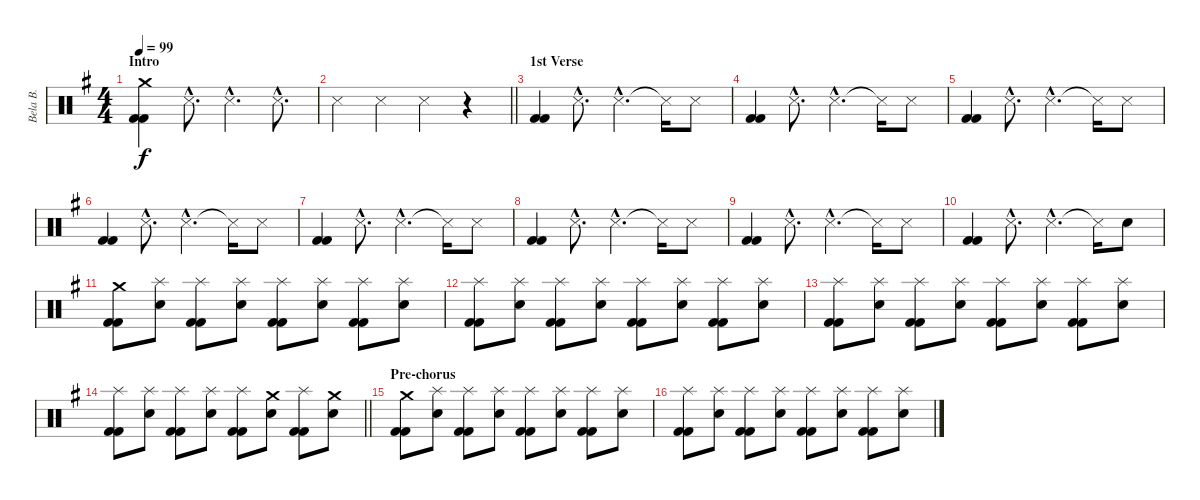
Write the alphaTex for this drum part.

\track ("Bela B." "Bela B.") {instrument percussion}
\staff {score}
\articulation defaults
\ts (4 4)
\section ("" "Intro")
\tempo 99
\clef neutral
\ks g
("Crash medium (hit)" "Kick (hit) 2" "Kick (hit) 2").4{dy f} "Snare (side stick) 3"{hac}.8{d} "Snare (side stick) 3"{hac}.4{d} "Snare (side stick) 3"{hac}.8{d} |
\barLineRight lightlight "Snare (side stick) 3".4 "Snare (side stick) 3".4 "Snare (side stick) 3".4
r.4 |
\section ("" "1st Verse")
("Kick (hit) 2" "Kick (hit) 2").4 "Snare (side stick) 3"{hac}.8{d} "Snare (side stick) 3"{hac}.4{d} "Snare (side stick) 3"{t}.16 "Snare (side stick) 3".8 |
("Kick (hit) 2" "Kick (hit) 2").4 "Snare (side stick) 3"{hac}.8{d} "Snare (side stick) 3"{hac}.4{d} "Snare (side stick) 3"{t}.16 "Snare (side stick) 3".8 |
("Kick (hit) 2" "Kick (hit) 2").4 "Snare (side stick) 3"{hac}.8{d} "Snare (side stick) 3"{hac}.4{d} "Snare (side stick) 3"{t}.16 "Snare (side stick) 3".8 |
("Kick (hit) 2" "Kick (hit) 2").4 "Snare (side stick) 3"{hac}.8{d} "Snare (side stick) 3"{hac}.4{d} "Snare (side stick) 3"{t}.16 "Snare (side stick) 3".8 |
("Kick (hit) 2" "Kick (hit) 2").4 "Snare (side stick) 3"{hac}.8{d} "Snare (side stick) 3"{hac}.4{d} "Snare (side stick) 3"{t}.16 "Snare (side stick) 3".8 |
("Kick (hit) 2" "Kick (hit) 2").4 "Snare (side stick) 3"{hac}.8{d} "Snare (side stick) 3"{hac}.4{d} "Snare (side stick) 3"{t}.16 "Snare (side stick) 3".8 |
("Kick (hit) 2" "Kick (hit) 2").4 "Snare (side stick) 3"{hac}.8{d} "Snare (side stick) 3"{hac}.4{d} "Snare (side stick) 3"{t}.16 "Snare (side stick) 3".8 |
("Kick (hit) 2" "Kick (hit) 2").4 "Snare (side stick) 3"{hac}.8{d} "Snare (side stick) 3"{hac}.4{d} "Snare (side stick) 3"{t}.16 "Electric Snare (hit)".8 |
("Crash medium (hit)" "Kick (hit) 2" "Kick (hit) 2").8 ("Splash (hit)" "Electric Snare (hit)").8 ("Splash (hit)" "Kick (hit) 2" "Kick (hit) 2").8 ("Splash (hit)" "Electric Snare (hit)").8 ("Splash (hit)" "Kick (hit) 2" "Kick (hit) 2").8 ("Splash (hit)" "Electric Snare (hit)").8 ("Splash (hit)" "Kick (hit) 2" "Kick (hit) 2").8 ("Splash (hit)" "Electric Snare (hit)").8 |
("Splash (hit)" "Kick (hit) 2" "Kick (hit) 2").8 ("Splash (hit)" "Electric Snare (hit)").8 ("Splash (hit)" "Kick (hit) 2" "Kick (hit) 2").8 ("Splash (hit)" "Electric Snare (hit)").8 ("Splash (hit)" "Kick (hit) 2" "Kick (hit) 2").8 ("Splash (hit)" "Electric Snare (hit)").8 ("Splash (hit)" "Kick (hit) 2" "Kick (hit) 2").8 ("Splash (hit)" "Electric Snare (hit)").8 |
("Splash (hit)" "Kick (hit) 2" "Kick (hit) 2").8 ("Splash (hit)" "Electric Snare (hit)").8 ("Splash (hit)" "Kick (hit) 2" "Kick (hit) 2").8 ("Splash (hit)" "Electric Snare (hit)").8 ("Splash (hit)" "Kick (hit) 2" "Kick (hit) 2").8 ("Splash (hit)" "Electric Snare (hit)").8 ("Splash (hit)" "Kick (hit) 2" "Kick (hit) 2").8 ("Splash (hit)" "Electric Snare (hit)").8 |
\barLineRight lightlight
("Splash (hit)" "Kick (hit) 2" "Kick (hit) 2").8 ("Splash (hit)" "Electric Snare (hit)").8 ("Splash (hit)" "Kick (hit) 2" "Kick (hit) 2").8 ("Splash (hit)" "Electric Snare (hit)").8 ("Splash (hit)" "Kick (hit) 2" "Kick (hit) 2").8 ("Crash medium (hit)" "Electric Snare (hit)").8 ("Splash (hit)" "Kick (hit) 2" "Kick (hit) 2").8 ("Crash medium (hit)" "Electric Snare (hit)").8 |
\section ("" "Pre-chorus")
("Crash medium (hit)" "Kick (hit) 2" "Kick (hit) 2").8 ("Splash (hit)" "Electric Snare (hit)").8 ("Splash (hit)" "Kick (hit) 2" "Kick (hit) 2").8 ("Splash (hit)" "Electric Snare (hit)").8 ("Splash (hit)" "Kick (hit) 2" "Kick (hit) 2").8 ("Splash (hit)" "Electric Snare (hit)").8 ("Splash (hit)" "Kick (hit) 2" "Kick (hit) 2").8 ("Splash (hit)" "Electric Snare (hit)").8 |
("Splash (hit)" "Kick (hit) 2" "Kick (hit) 2").8 ("Splash (hit)" "Electric Snare (hit)").8 ("Splash (hit)" "Kick (hit) 2" "Kick (hit) 2").8 ("Splash (hit)" "Electric Snare (hit)").8 ("Splash (hit)" "Kick (hit) 2" "Kick (hit) 2").8 ("Splash (hit)" "Electric Snare (hit)").8 ("Splash (hit)" "Kick (hit) 2" "Kick (hit) 2").8 ("Splash (hit)" "Electric Snare (hit)").8
